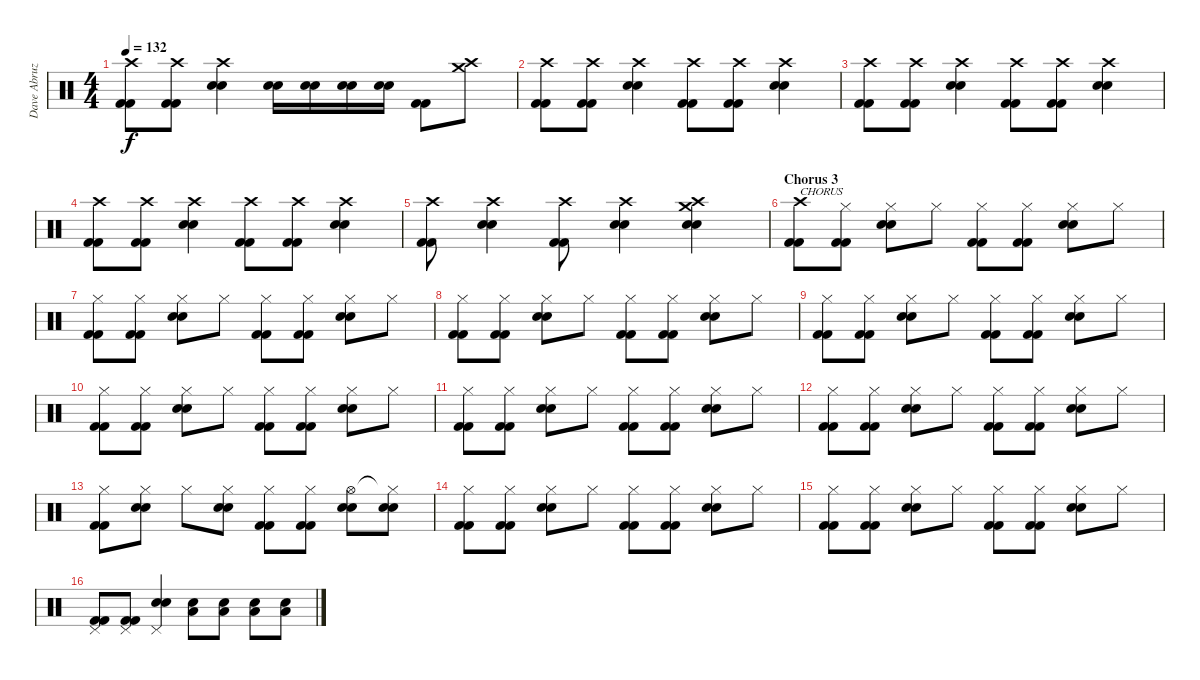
\track ("Dave Abruzzesse" "Dave Abruz") {instrument percussion}
\staff {score}
\articulation defaults
\ts (4 4)
\tempo 132
\clef neutral
\ks c
("Crash high (hit)" "Kick (hit) 2" "Kick (hit) 2").8{dy f} ("Crash high (hit)" "Kick (hit) 2" "Kick (hit) 2").8 ("Crash high (hit)" "Snare (hit) 2" "Snare (hit) 2").4 ("Snare (hit) 2" "Snare (hit) 2").16 ("Snare (hit) 2" "Snare (hit) 2").16 ("Snare (hit) 2" "Snare (hit) 2").16 ("Snare (hit) 2" "Snare (hit) 2").16 ("Kick (hit) 2" "Kick (hit) 2").8 ("Crash high (hit)" "Crash medium (hit)").8 |
("Crash high (hit)" "Kick (hit) 2" "Kick (hit) 2").8 ("Crash high (hit)" "Kick (hit) 2" "Kick (hit) 2").8 ("Crash high (hit)" "Snare (hit) 2" "Snare (hit) 2").4 ("Crash high (hit)" "Kick (hit) 2" "Kick (hit) 2").8 ("Crash high (hit)" "Kick (hit) 2" "Kick (hit) 2").8 ("Crash high (hit)" "Snare (hit) 2" "Snare (hit) 2").4 |
("Crash high (hit)" "Kick (hit) 2" "Kick (hit) 2").8 ("Crash high (hit)" "Kick (hit) 2" "Kick (hit) 2").8 ("Crash high (hit)" "Snare (hit) 2" "Snare (hit) 2").4 ("Crash high (hit)" "Kick (hit) 2" "Kick (hit) 2").8 ("Crash high (hit)" "Kick (hit) 2" "Kick (hit) 2").8 ("Crash high (hit)" "Snare (hit) 2" "Snare (hit) 2").4 |
("Crash high (hit)" "Kick (hit) 2" "Kick (hit) 2").8 ("Crash high (hit)" "Kick (hit) 2" "Kick (hit) 2").8 ("Crash high (hit)" "Snare (hit) 2" "Snare (hit) 2").4 ("Crash high (hit)" "Kick (hit) 2" "Kick (hit) 2").8 ("Crash high (hit)" "Kick (hit) 2" "Kick (hit) 2").8 ("Crash high (hit)" "Snare (hit) 2" "Snare (hit) 2").4 |
("Crash high (hit)" "Kick (hit) 2" "Kick (hit) 2").8 ("Crash high (hit)" "Snare (hit) 2" "Snare (hit) 2").4 ("Crash high (hit)" "Kick (hit) 2" "Kick (hit) 2").8 ("Crash high (hit)" "Snare (hit) 2" "Snare (hit) 2").4 ("Crash high (hit)" "Crash medium (hit)" "Snare (hit) 2" "Snare (hit) 2").4 |
\section ("" "Chorus 3")
("Crash high (hit)" "Kick (hit) 2" "Kick (hit) 2").8{txt "CHORUS"} ("Hi-Hat (closed)" "Kick (hit) 2" "Kick (hit) 2").8 ("Hi-Hat (closed)" "Snare (hit) 2" "Snare (hit) 2").8 "Hi-Hat (closed)".8 ("Hi-Hat (closed)" "Kick (hit) 2" "Kick (hit) 2").8 ("Hi-Hat (closed)" "Kick (hit) 2" "Kick (hit) 2").8 ("Hi-Hat (closed)" "Snare (hit) 2" "Snare (hit) 2").8 "Hi-Hat (closed)".8 |
("Hi-Hat (closed)" "Kick (hit) 2" "Kick (hit) 2").8 ("Hi-Hat (closed)" "Kick (hit) 2" "Kick (hit) 2").8 ("Hi-Hat (closed)" "Snare (hit) 2" "Snare (hit) 2").8 "Hi-Hat (closed)".8 ("Hi-Hat (closed)" "Kick (hit) 2" "Kick (hit) 2").8 ("Hi-Hat (closed)" "Kick (hit) 2" "Kick (hit) 2").8 ("Hi-Hat (closed)" "Snare (hit) 2" "Snare (hit) 2").8 "Hi-Hat (closed)".8 |
("Hi-Hat (closed)" "Kick (hit) 2" "Kick (hit) 2").8 ("Hi-Hat (closed)" "Kick (hit) 2" "Kick (hit) 2").8 ("Hi-Hat (closed)" "Snare (hit) 2" "Snare (hit) 2").8 "Hi-Hat (closed)".8 ("Hi-Hat (closed)" "Kick (hit) 2" "Kick (hit) 2").8 ("Hi-Hat (closed)" "Kick (hit) 2" "Kick (hit) 2").8 ("Hi-Hat (closed)" "Snare (hit) 2" "Snare (hit) 2").8 "Hi-Hat (closed)".8 |
("Hi-Hat (closed)" "Kick (hit) 2" "Kick (hit) 2").8 ("Hi-Hat (closed)" "Kick (hit) 2" "Kick (hit) 2").8 ("Hi-Hat (closed)" "Snare (hit) 2" "Snare (hit) 2").8 "Hi-Hat (closed)".8 ("Hi-Hat (closed)" "Kick (hit) 2" "Kick (hit) 2").8 ("Hi-Hat (closed)" "Kick (hit) 2" "Kick (hit) 2").8 ("Hi-Hat (closed)" "Snare (hit) 2" "Snare (hit) 2").8 "Hi-Hat (closed)".8 |
("Hi-Hat (closed)" "Kick (hit) 2" "Kick (hit) 2").8 ("Hi-Hat (closed)" "Kick (hit) 2" "Kick (hit) 2").8 ("Hi-Hat (closed)" "Snare (hit) 2" "Snare (hit) 2").8 "Hi-Hat (closed)".8 ("Hi-Hat (closed)" "Kick (hit) 2" "Kick (hit) 2").8 ("Hi-Hat (closed)" "Kick (hit) 2" "Kick (hit) 2").8 ("Hi-Hat (closed)" "Snare (hit) 2" "Snare (hit) 2").8 "Hi-Hat (closed)".8 |
("Hi-Hat (closed)" "Kick (hit) 2" "Kick (hit) 2").8 ("Hi-Hat (closed)" "Kick (hit) 2" "Kick (hit) 2").8 ("Hi-Hat (closed)" "Snare (hit) 2" "Snare (hit) 2").8 "Hi-Hat (closed)".8 ("Hi-Hat (closed)" "Kick (hit) 2" "Kick (hit) 2").8 ("Hi-Hat (closed)" "Kick (hit) 2" "Kick (hit) 2").8 ("Hi-Hat (closed)" "Snare (hit) 2" "Snare (hit) 2").8 "Hi-Hat (closed)".8 |
("Hi-Hat (closed)" "Kick (hit) 2" "Kick (hit) 2").8 ("Hi-Hat (closed)" "Kick (hit) 2" "Kick (hit) 2").8 ("Hi-Hat (closed)" "Snare (hit) 2" "Snare (hit) 2").8 "Hi-Hat (closed)".8 ("Hi-Hat (closed)" "Kick (hit) 2" "Kick (hit) 2").8 ("Hi-Hat (closed)" "Kick (hit) 2" "Kick (hit) 2").8 ("Hi-Hat (closed)" "Snare (hit) 2" "Snare (hit) 2").8 "Hi-Hat (closed)".8 |
("Hi-Hat (closed)" "Kick (hit) 2" "Kick (hit) 2").8 ("Hi-Hat (closed)" "Snare (hit) 2" "Snare (hit) 2").8 "Hi-Hat (closed)".8 ("Hi-Hat (closed)" "Snare (hit) 2" "Snare (hit) 2").8 ("Hi-Hat (closed)" "Kick (hit) 2" "Kick (hit) 2").8 ("Hi-Hat (closed)" "Kick (hit) 2" "Kick (hit) 2").8 ("Hi-Hat (open)" "Snare (hit) 2" "Snare (hit) 2").8 ("Hi-Hat (closed)"{t} "Snare (hit) 2" "Snare (hit) 2").8 |
("Hi-Hat (closed)" "Kick (hit) 2" "Kick (hit) 2").8 ("Hi-Hat (closed)" "Kick (hit) 2" "Kick (hit) 2").8 ("Hi-Hat (closed)" "Snare (hit) 2" "Snare (hit) 2").8 "Hi-Hat (closed)".8 ("Hi-Hat (closed)" "Kick (hit) 2" "Kick (hit) 2").8 ("Hi-Hat (closed)" "Kick (hit) 2" "Kick (hit) 2").8 ("Hi-Hat (closed)" "Snare (hit) 2" "Snare (hit) 2").8 "Hi-Hat (closed)".8 |
("Hi-Hat (closed)" "Kick (hit) 2" "Kick (hit) 2").8 ("Hi-Hat (closed)" "Kick (hit) 2" "Kick (hit) 2").8 ("Hi-Hat (closed)" "Snare (hit) 2" "Snare (hit) 2").8 "Hi-Hat (closed)".8 ("Hi-Hat (closed)" "Kick (hit) 2" "Kick (hit) 2").8 ("Hi-Hat (closed)" "Kick (hit) 2" "Kick (hit) 2").8 ("Hi-Hat (closed)" "Snare (hit) 2" "Snare (hit) 2").8 "Hi-Hat (closed)".8 |
("Pedal Hi-Hat (hit)" "Kick (hit) 2" "Kick (hit) 2").8 ("Pedal Hi-Hat (hit)" "Kick (hit) 2" "Kick (hit) 2").8 ("Pedal Hi-Hat (hit)" "Snare (hit) 2" "Snare (hit) 2").4 ("Snare (hit) 2" "Low Tom (hit)").8 ("Snare (hit) 2" "Low Tom (hit)").8 ("Snare (hit) 2" "Low Tom (hit)").8 ("Snare (hit) 2" "Low Tom (hit)").8
